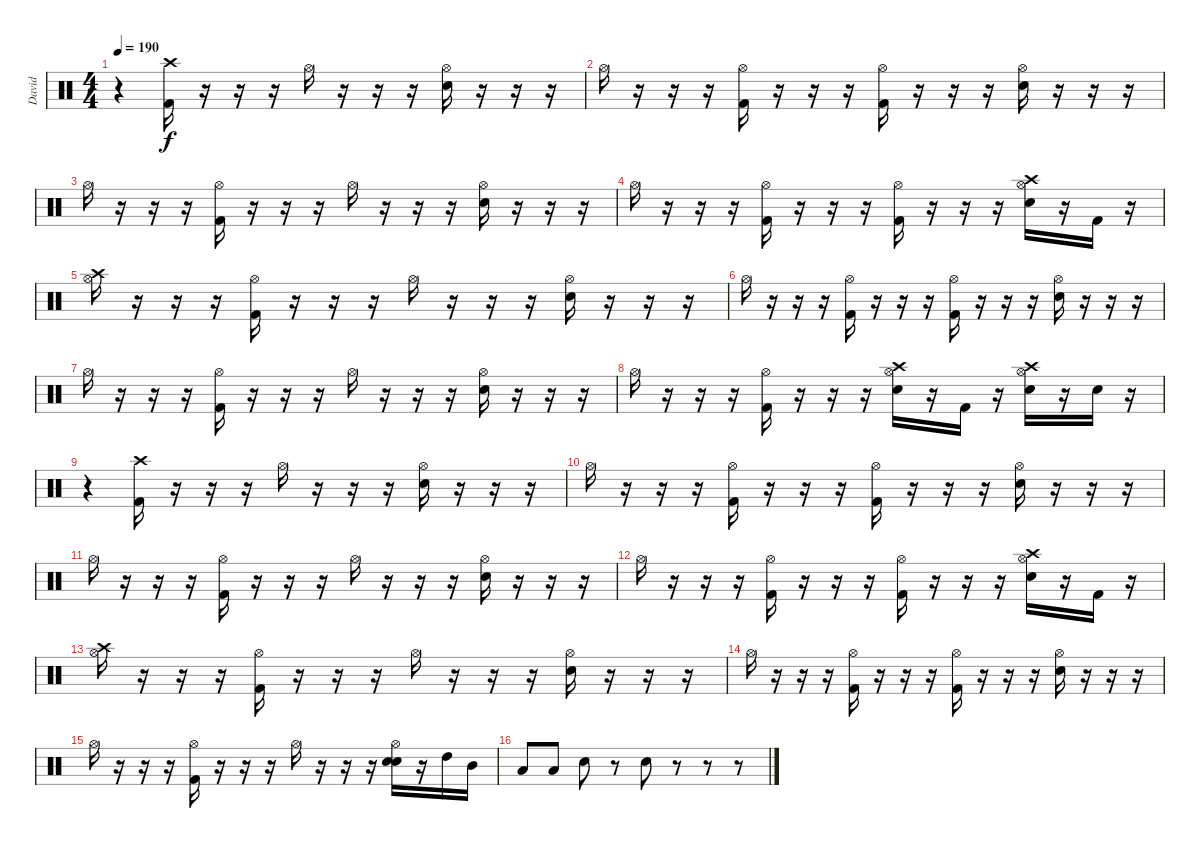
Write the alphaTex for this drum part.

\track ("David" "David") {instrument percussion}
\staff {score}
\articulation defaults
\ts (4 4)
\tempo 190
\clef neutral
\ks c
r.4{dy f} ("Crash high (hit)" "Kick (hit) 2").16 r.16 r.16 r.16 "Hi-Hat (open)".16 r.16 r.16 r.16 ("Hi-Hat (open)" "Electric Snare (hit)").16 r.16 r.16 r.16 |
"Hi-Hat (open)".16 r.16 r.16 r.16 ("Hi-Hat (open)" "Kick (hit) 2").16 r.16 r.16 r.16 ("Hi-Hat (open)" "Kick (hit) 2").16 r.16 r.16 r.16 ("Hi-Hat (open)" "Electric Snare (hit)").16 r.16 r.16 r.16 |
"Hi-Hat (open)".16 r.16 r.16 r.16 ("Hi-Hat (open)" "Kick (hit) 2").16 r.16 r.16 r.16 "Hi-Hat (open)".16 r.16 r.16 r.16 ("Hi-Hat (open)" "Electric Snare (hit)").16 r.16 r.16 r.16 |
"Hi-Hat (open)".16 r.16 r.16 r.16 ("Hi-Hat (open)" "Kick (hit) 2").16 r.16 r.16 r.16 ("Hi-Hat (open)" "Kick (hit) 2").16 r.16 r.16 r.16 ("Crash high (hit)" "Hi-Hat (open)" "Electric Snare (hit)").16 r.16 "Kick (hit) 2".16 r.16 |
("Crash high (hit)" "Hi-Hat (open)").16 r.16 r.16 r.16 ("Hi-Hat (open)" "Kick (hit) 2").16 r.16 r.16 r.16 "Hi-Hat (open)".16 r.16 r.16 r.16 ("Hi-Hat (open)" "Electric Snare (hit)").16 r.16 r.16 r.16 |
"Hi-Hat (open)".16 r.16 r.16 r.16 ("Hi-Hat (open)" "Kick (hit) 2").16 r.16 r.16 r.16 ("Hi-Hat (open)" "Kick (hit) 2").16 r.16 r.16 r.16 ("Hi-Hat (open)" "Electric Snare (hit)").16 r.16 r.16 r.16 |
"Hi-Hat (open)".16 r.16 r.16 r.16 ("Hi-Hat (open)" "Kick (hit) 2").16 r.16 r.16 r.16 "Hi-Hat (open)".16 r.16 r.16 r.16 ("Hi-Hat (open)" "Electric Snare (hit)").16 r.16 r.16 r.16 |
"Hi-Hat (open)".16 r.16 r.16 r.16 ("Hi-Hat (open)" "Kick (hit) 2").16 r.16 r.16 r.16 ("Crash high (hit)" "Hi-Hat (open)" "Electric Snare (hit)").16 r.16 "Kick (hit) 2".16 r.16 ("Crash high (hit)" "Hi-Hat (open)" "Electric Snare (hit)").16 r.16 "Electric Snare (hit)".16 r.16 |
r.4 ("Crash high (hit)" "Kick (hit) 2").16 r.16 r.16 r.16 "Hi-Hat (open)".16 r.16 r.16 r.16 ("Hi-Hat (open)" "Electric Snare (hit)").16 r.16 r.16 r.16 |
"Hi-Hat (open)".16 r.16 r.16 r.16 ("Hi-Hat (open)" "Kick (hit) 2").16 r.16 r.16 r.16 ("Hi-Hat (open)" "Kick (hit) 2").16 r.16 r.16 r.16 ("Hi-Hat (open)" "Electric Snare (hit)").16 r.16 r.16 r.16 |
"Hi-Hat (open)".16 r.16 r.16 r.16 ("Hi-Hat (open)" "Kick (hit) 2").16 r.16 r.16 r.16 "Hi-Hat (open)".16 r.16 r.16 r.16 ("Hi-Hat (open)" "Electric Snare (hit)").16 r.16 r.16 r.16 |
"Hi-Hat (open)".16 r.16 r.16 r.16 ("Hi-Hat (open)" "Kick (hit) 2").16 r.16 r.16 r.16 ("Hi-Hat (open)" "Kick (hit) 2").16 r.16 r.16 r.16 ("Crash high (hit)" "Hi-Hat (open)" "Electric Snare (hit)").16 r.16 "Kick (hit) 2".16 r.16 |
("Crash high (hit)" "Hi-Hat (open)").16 r.16 r.16 r.16 ("Hi-Hat (open)" "Kick (hit) 2").16 r.16 r.16 r.16 "Hi-Hat (open)".16 r.16 r.16 r.16 ("Hi-Hat (open)" "Electric Snare (hit)").16 r.16 r.16 r.16 |
"Hi-Hat (open)".16 r.16 r.16 r.16 ("Hi-Hat (open)" "Kick (hit) 2").16 r.16 r.16 r.16 ("Hi-Hat (open)" "Kick (hit) 2").16 r.16 r.16 r.16 ("Hi-Hat (open)" "Electric Snare (hit)").16 r.16 r.16 r.16 |
"Hi-Hat (open)".16 r.16 r.16 r.16 ("Hi-Hat (open)" "Kick (hit) 2").16 r.16 r.16 r.16 "Hi-Hat (open)".16 r.16 r.16 r.16 ("Hi-Hat (open)" "Electric Snare (hit)" "Snare (hit) 2").16 r.16 "High Tom (hit)".16 "Mid Tom (hit)".16 |
"Low Tom (hit)".8 "Low Tom (hit)".8 "Electric Snare (hit)".8 r.8 "Electric Snare (hit)".8 r.8 r.8 r.8
